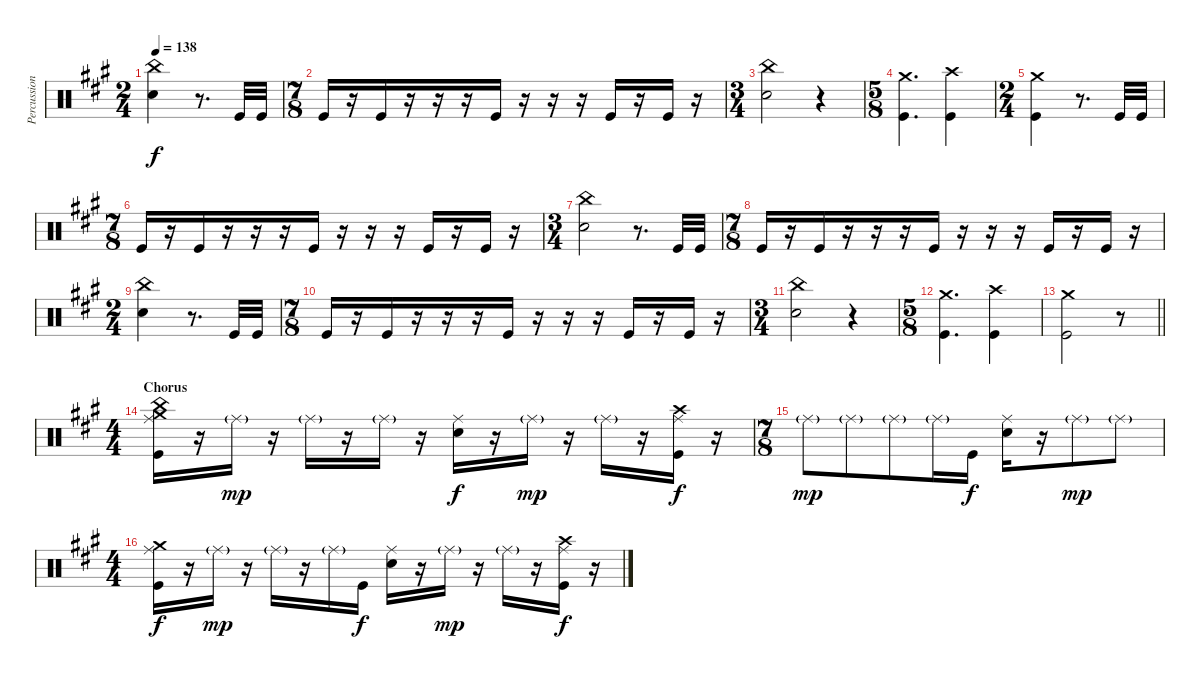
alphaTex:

\track ("Percussion" "Percussion") {instrument percussion}
\staff {score}
\articulation defaults
\ts (2 4)
\tempo 138
\clef neutral
\ks a
("China (hit)" "Electric Snare (hit)").4{dy f} r.8{d} "Kick (hit)".32 "Kick (hit)".32 |
\ts (7 8)
"Kick (hit)".16 r.16 "Kick (hit)".16 r.16 r.16 r.16 "Kick (hit)".16 r.16 r.16 r.16 "Kick (hit)".16 r.16 "Kick (hit)".16 r.16 |
\ts (3 4)
("China (hit)" "Electric Snare (hit)").2 r.4 |
\ts (5 8)
("Crash medium (hit)" "Kick (hit)").4{d} ("Crash high (hit)" "Kick (hit)").4 |
\ts (2 4)
("Crash medium (hit)" "Kick (hit)").4 r.8{d} "Kick (hit)".32 "Kick (hit)".32 |
\ts (7 8)
"Kick (hit)".16 r.16 "Kick (hit)".16 r.16 r.16 r.16 "Kick (hit)".16 r.16 r.16 r.16 "Kick (hit)".16 r.16 "Kick (hit)".16 r.16 |
\ts (3 4)
("China (hit)" "Electric Snare (hit)").2 r.8{d} "Kick (hit)".32 "Kick (hit)".32 |
\ts (7 8)
"Kick (hit)".16 r.16 "Kick (hit)".16 r.16 r.16 r.16 "Kick (hit)".16 r.16 r.16 r.16 "Kick (hit)".16 r.16 "Kick (hit)".16 r.16 |
\ts (2 4)
("China (hit)" "Electric Snare (hit)").4 r.8{d} "Kick (hit)".32 "Kick (hit)".32 |
\ts (7 8)
"Kick (hit)".16 r.16 "Kick (hit)".16 r.16 r.16 r.16 "Kick (hit)".16 r.16 r.16 r.16 "Kick (hit)".16 r.16 "Kick (hit)".16 r.16 |
\ts (3 4)
("China (hit)" "Electric Snare (hit)").2 r.4 |
\ts (5 8)
("Crash medium (hit)" "Kick (hit)").4{d} ("Crash high (hit)" "Kick (hit)").4 |
\barLineRight lightlight
("Crash medium (hit)" "Kick (hit)").2 r.8 |
\ts (4 4)
\section ("" "Chorus")
("Ride (middle)" "Crash medium (hit)" "China (hit)" "Kick (hit)").16 r.16 "Ride (middle)"{g}.16{dy mp} r.16 "Ride (middle)"{g}.16 r.16 "Ride (middle)"{g}.16 r.16 ("Ride (middle)" "Electric Snare (hit)").16{dy f} r.16 "Ride (middle)"{g}.16{dy mp} r.16 "Ride (middle)"{g}.16 r.16 ("Ride (middle)" "Crash high (hit)" "Kick (hit)").16{dy f} r.16 |
\ts (7 8)
"Ride (middle)"{g}.8{dy mp} "Ride (middle)"{g}.8 "Ride (middle)"{g}.8 "Ride (middle)"{g}.16 "Kick (hit)".16{dy f} ("Ride (middle)" "Electric Snare (hit)").16 r.16 "Ride (middle)"{g}.8{dy mp} "Ride (middle)"{g}.8 |
\ts (4 4)
("Ride (middle)" "Crash medium (hit)" "Kick (hit)").16{dy f} r.16 "Ride (middle)"{g}.16{dy mp} r.16 "Ride (middle)"{g}.16 r.16 "Ride (middle)"{g}.16 "Kick (hit)".16{dy f} ("Ride (middle)" "Electric Snare (hit)").16 r.16 "Ride (middle)"{g}.16{dy mp} r.16 "Ride (middle)"{g}.16 r.16 ("Ride (middle)" "Crash high (hit)" "Kick (hit)").16{dy f} r.16
